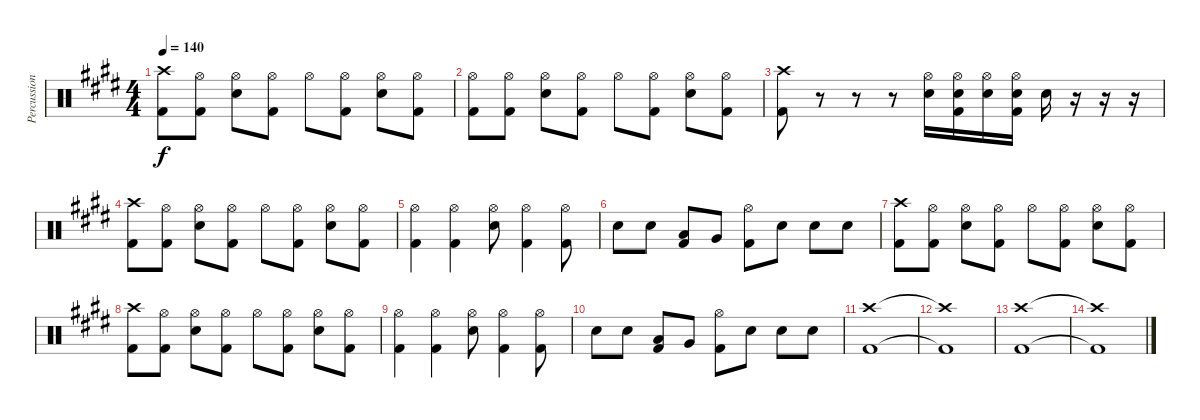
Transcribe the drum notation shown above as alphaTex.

\track ("Percussion" "Percussion") {instrument percussion}
\staff {score}
\articulation defaults
\ts (4 4)
\tempo 140
\clef neutral
\ks e
("Crash high (hit)" "Kick (hit) 2").8{dy f} ("Hi-Hat (open)" "Kick (hit) 2").8 ("Hi-Hat (open)" "Electric Snare (hit)").8 ("Hi-Hat (open)" "Kick (hit) 2").8 "Hi-Hat (open)".8 ("Hi-Hat (open)" "Kick (hit) 2").8 ("Hi-Hat (open)" "Electric Snare (hit)").8 ("Hi-Hat (open)" "Kick (hit) 2").8 |
("Hi-Hat (open)" "Kick (hit) 2").8 ("Hi-Hat (open)" "Kick (hit) 2").8 ("Hi-Hat (open)" "Electric Snare (hit)").8 ("Hi-Hat (open)" "Kick (hit) 2").8 "Hi-Hat (open)".8 ("Hi-Hat (open)" "Kick (hit) 2").8 ("Hi-Hat (open)" "Electric Snare (hit)").8 ("Hi-Hat (open)" "Kick (hit) 2").8 |
("Crash high (hit)" "Kick (hit) 2").8 r.8 r.8 r.8 ("Hi-Hat (open)" "Electric Snare (hit)").16 ("Hi-Hat (open)" "Electric Snare (hit)" "Kick (hit) 2").16 ("Hi-Hat (open)" "Electric Snare (hit)").16 ("Hi-Hat (open)" "Electric Snare (hit)" "Kick (hit) 2").16 "Electric Snare (hit)".16 r.16 r.16 r.16 |
("Crash high (hit)" "Kick (hit) 2").8 ("Hi-Hat (open)" "Kick (hit) 2").8 ("Hi-Hat (open)" "Electric Snare (hit)").8 ("Hi-Hat (open)" "Kick (hit) 2").8 "Hi-Hat (open)".8 ("Hi-Hat (open)" "Kick (hit) 2").8 ("Hi-Hat (open)" "Electric Snare (hit)").8 ("Hi-Hat (open)" "Kick (hit) 2").8 |
("Hi-Hat (open)" "Kick (hit) 2").4 ("Hi-Hat (open)" "Kick (hit) 2").4 ("Hi-Hat (open)" "Electric Snare (hit)").8 ("Hi-Hat (open)" "Kick (hit) 2").4 ("Hi-Hat (open)" "Kick (hit) 2").8 |
"Electric Snare (hit)".8 "Electric Snare (hit)".8 ("Low Tom (hit)" "Kick (hit) 2").8 "Very Low Tom (hit)".8 ("Hi-Hat (open)" "Kick (hit) 2").8 "Electric Snare (hit)".8 "Electric Snare (hit)".8 "Electric Snare (hit)".8 |
("Crash high (hit)" "Kick (hit) 2").8 ("Hi-Hat (open)" "Kick (hit) 2").8 ("Hi-Hat (open)" "Electric Snare (hit)").8 ("Hi-Hat (open)" "Kick (hit) 2").8 "Hi-Hat (open)".8 ("Hi-Hat (open)" "Kick (hit) 2").8 ("Hi-Hat (open)" "Electric Snare (hit)").8 ("Hi-Hat (open)" "Kick (hit) 2").8 |
("Crash high (hit)" "Kick (hit) 2").8 ("Hi-Hat (open)" "Kick (hit) 2").8 ("Hi-Hat (open)" "Electric Snare (hit)").8 ("Hi-Hat (open)" "Kick (hit) 2").8 "Hi-Hat (open)".8 ("Hi-Hat (open)" "Kick (hit) 2").8 ("Hi-Hat (open)" "Electric Snare (hit)").8 ("Hi-Hat (open)" "Kick (hit) 2").8 |
("Hi-Hat (open)" "Kick (hit) 2").4 ("Hi-Hat (open)" "Kick (hit) 2").4 ("Hi-Hat (open)" "Electric Snare (hit)").8 ("Hi-Hat (open)" "Kick (hit) 2").4 ("Hi-Hat (open)" "Kick (hit) 2").8 |
"Electric Snare (hit)".8 "Electric Snare (hit)".8 ("Low Tom (hit)" "Kick (hit) 2").8 "Very Low Tom (hit)".8 ("Hi-Hat (open)" "Kick (hit) 2").8 "Electric Snare (hit)".8 "Electric Snare (hit)".8 "Electric Snare (hit)".8 |
("Crash high (hit)" "Kick (hit) 2").1 |
("Crash high (hit)"{t} "Kick (hit) 2"{t}).1 |
("Crash high (hit)" "Kick (hit) 2").1 |
("Crash high (hit)"{t} "Kick (hit) 2"{t}).1
